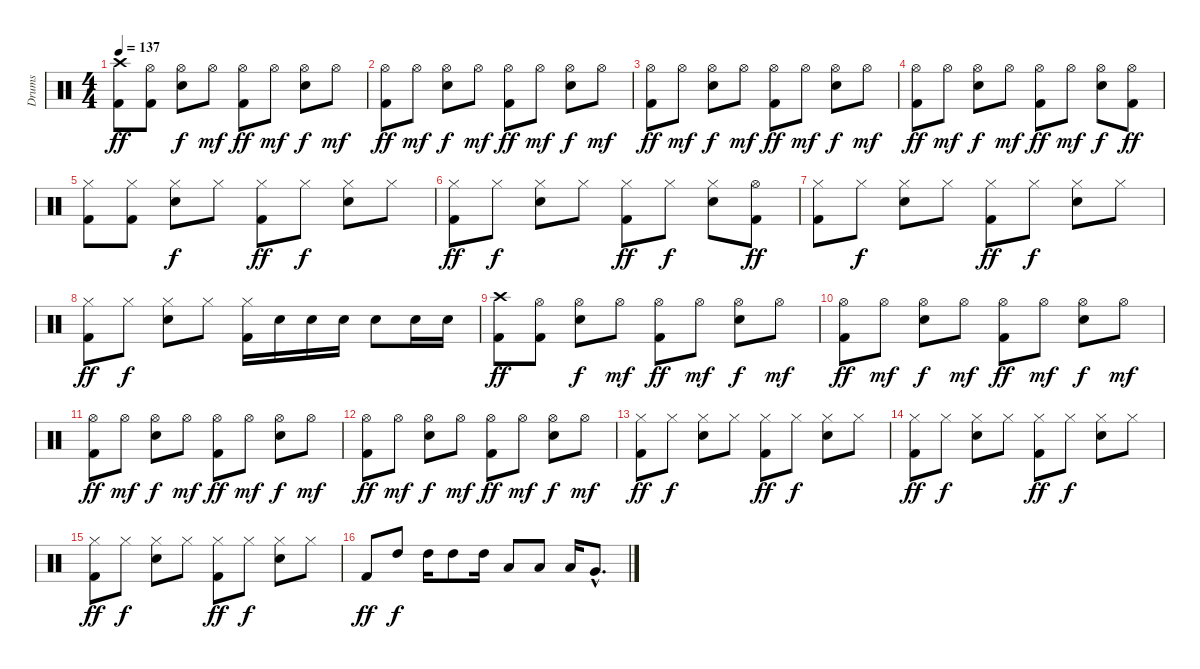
\track ("Drums" "Drums") {instrument percussion}
\staff {score}
\articulation defaults
\ts (4 4)
\tempo 137
\clef neutral
\ks c
("Crash high (hit)" "Kick (hit) 2").8{dy ff} ("Hi-Hat (open)" "Kick (hit) 2").8 ("Hi-Hat (open)" "Electric Snare (hit)").8{dy f} "Hi-Hat (open)".8{dy mf} ("Hi-Hat (open)" "Kick (hit) 2").8{dy ff} "Hi-Hat (open)".8{dy mf} ("Hi-Hat (open)" "Electric Snare (hit)").8{dy f} "Hi-Hat (open)".8{dy mf} |
("Hi-Hat (open)" "Kick (hit) 2").8{dy ff} "Hi-Hat (open)".8{dy mf} ("Hi-Hat (open)" "Electric Snare (hit)").8{dy f} "Hi-Hat (open)".8{dy mf} ("Hi-Hat (open)" "Kick (hit) 2").8{dy ff} "Hi-Hat (open)".8{dy mf} ("Hi-Hat (open)" "Electric Snare (hit)").8{dy f} "Hi-Hat (open)".8{dy mf} |
("Hi-Hat (open)" "Kick (hit) 2").8{dy ff} "Hi-Hat (open)".8{dy mf} ("Hi-Hat (open)" "Electric Snare (hit)").8{dy f} "Hi-Hat (open)".8{dy mf} ("Hi-Hat (open)" "Kick (hit) 2").8{dy ff} "Hi-Hat (open)".8{dy mf} ("Hi-Hat (open)" "Electric Snare (hit)").8{dy f} "Hi-Hat (open)".8{dy mf} |
("Hi-Hat (open)" "Kick (hit) 2").8{dy ff} "Hi-Hat (open)".8{dy mf} ("Hi-Hat (open)" "Electric Snare (hit)").8{dy f} "Hi-Hat (open)".8{dy mf} ("Hi-Hat (open)" "Kick (hit) 2").8{dy ff} "Hi-Hat (open)".8{dy mf} ("Hi-Hat (open)" "Electric Snare (hit)").8{dy f} ("Hi-Hat (open)" "Kick (hit) 2").8{dy ff} |
("Hi-Hat (closed)" "Kick (hit) 2").8 ("Hi-Hat (closed)" "Kick (hit) 2").8 ("Hi-Hat (closed)" "Electric Snare (hit)").8{dy f} "Hi-Hat (closed)".8 ("Hi-Hat (closed)" "Kick (hit) 2").8{dy ff} "Hi-Hat (closed)".8{dy f} ("Hi-Hat (closed)" "Electric Snare (hit)").8 "Hi-Hat (closed)".8 |
("Hi-Hat (closed)" "Kick (hit) 2").8{dy ff} "Hi-Hat (closed)".8{dy f} ("Hi-Hat (closed)" "Electric Snare (hit)").8 "Hi-Hat (closed)".8 ("Hi-Hat (closed)" "Kick (hit) 2").8{dy ff} "Hi-Hat (closed)".8{dy f} ("Hi-Hat (closed)" "Electric Snare (hit)").8 ("Hi-Hat (open)" "Kick (hit) 2").8{dy ff} |
("Hi-Hat (closed)" "Kick (hit) 2").8 "Hi-Hat (closed)".8{dy f} ("Hi-Hat (closed)" "Electric Snare (hit)").8 "Hi-Hat (closed)".8 ("Hi-Hat (closed)" "Kick (hit) 2").8{dy ff} "Hi-Hat (closed)".8{dy f} ("Hi-Hat (closed)" "Electric Snare (hit)").8 "Hi-Hat (closed)".8 |
("Hi-Hat (closed)" "Kick (hit) 2").8{dy ff} "Hi-Hat (closed)".8{dy f} ("Hi-Hat (closed)" "Electric Snare (hit)").8 "Hi-Hat (closed)".8 ("Hi-Hat (closed)" "Kick (hit) 2").16 "Electric Snare (hit)".16 "Electric Snare (hit)".16 "Electric Snare (hit)".16 "Electric Snare (hit)".8 "Electric Snare (hit)".16 "Electric Snare (hit)".16 |
("Crash high (hit)" "Kick (hit) 2").8{dy ff} ("Hi-Hat (open)" "Kick (hit) 2").8 ("Hi-Hat (open)" "Electric Snare (hit)").8{dy f} "Hi-Hat (open)".8{dy mf} ("Hi-Hat (open)" "Kick (hit) 2").8{dy ff} "Hi-Hat (open)".8{dy mf} ("Hi-Hat (open)" "Electric Snare (hit)").8{dy f} "Hi-Hat (open)".8{dy mf} |
("Hi-Hat (open)" "Kick (hit) 2").8{dy ff} "Hi-Hat (open)".8{dy mf} ("Hi-Hat (open)" "Electric Snare (hit)").8{dy f} "Hi-Hat (open)".8{dy mf} ("Hi-Hat (open)" "Kick (hit) 2").8{dy ff} "Hi-Hat (open)".8{dy mf} ("Hi-Hat (open)" "Electric Snare (hit)").8{dy f} "Hi-Hat (open)".8{dy mf} |
("Hi-Hat (open)" "Kick (hit) 2").8{dy ff} "Hi-Hat (open)".8{dy mf} ("Hi-Hat (open)" "Electric Snare (hit)").8{dy f} "Hi-Hat (open)".8{dy mf} ("Hi-Hat (open)" "Kick (hit) 2").8{dy ff} "Hi-Hat (open)".8{dy mf} ("Hi-Hat (open)" "Electric Snare (hit)").8{dy f} "Hi-Hat (open)".8{dy mf} |
("Hi-Hat (open)" "Kick (hit) 2").8{dy ff} "Hi-Hat (open)".8{dy mf} ("Hi-Hat (open)" "Electric Snare (hit)").8{dy f} "Hi-Hat (open)".8{dy mf} ("Hi-Hat (open)" "Kick (hit) 2").8{dy ff} "Hi-Hat (open)".8{dy mf} ("Hi-Hat (open)" "Electric Snare (hit)").8{dy f} "Hi-Hat (open)".8{dy mf} |
("Hi-Hat (closed)" "Kick (hit) 2").8{dy ff} "Hi-Hat (closed)".8{dy f} ("Hi-Hat (closed)" "Electric Snare (hit)").8 "Hi-Hat (closed)".8 ("Hi-Hat (closed)" "Kick (hit) 2").8{dy ff} "Hi-Hat (closed)".8{dy f} ("Hi-Hat (closed)" "Electric Snare (hit)").8 "Hi-Hat (closed)".8 |
("Hi-Hat (closed)" "Kick (hit) 2").8{dy ff} "Hi-Hat (closed)".8{dy f} ("Hi-Hat (closed)" "Electric Snare (hit)").8 "Hi-Hat (closed)".8 ("Hi-Hat (closed)" "Kick (hit) 2").8{dy ff} "Hi-Hat (closed)".8{dy f} ("Hi-Hat (closed)" "Electric Snare (hit)").8 "Hi-Hat (closed)".8 |
("Hi-Hat (closed)" "Kick (hit) 2").8{dy ff} "Hi-Hat (closed)".8{dy f} ("Hi-Hat (closed)" "Electric Snare (hit)").8 "Hi-Hat (closed)".8 ("Hi-Hat (closed)" "Kick (hit) 2").8{dy ff} "Hi-Hat (closed)".8{dy f} ("Hi-Hat (closed)" "Electric Snare (hit)").8 "Hi-Hat (closed)".8 |
"Kick (hit) 2".8{dy ff} "High Tom (hit)".8{dy f} "High Tom (hit)".16 "High Tom (hit)".8 "High Tom (hit)".16 "Low Tom (hit)".8 "Low Tom (hit)".8 "Low Tom (hit)".16 "Very Low Tom (hit)"{hac}.8{d}
